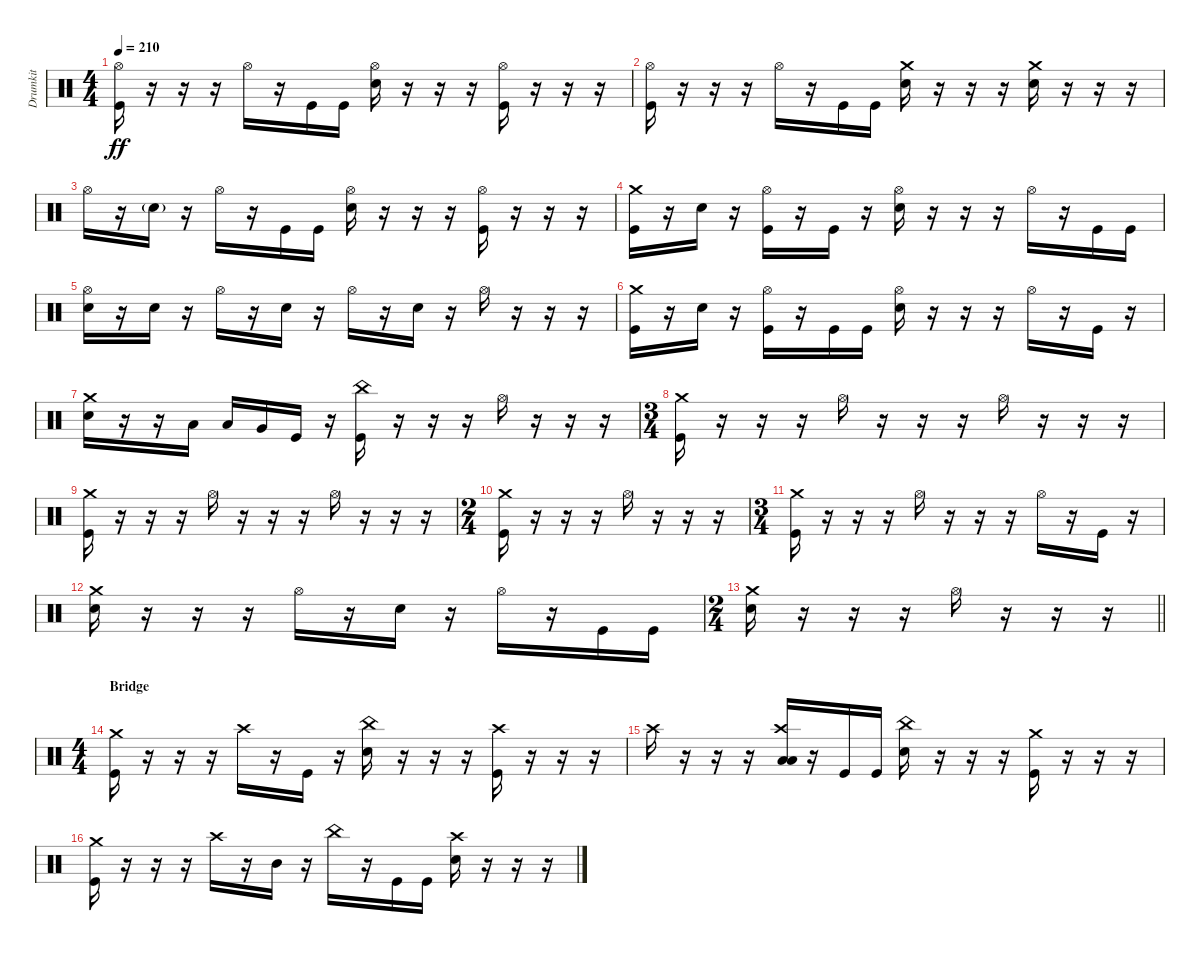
\track ("Drumkit" "Drumkit") {instrument percussion}
\staff {score}
\articulation defaults
\ts (4 4)
\tempo 210
\clef neutral
\ks c
("Hi-Hat (open)" "Kick (hit)").16{dy ff} r.16 r.16 r.16 "Hi-Hat (open)".16 r.16 "Kick (hit)".16 "Kick (hit)".16 ("Hi-Hat (open)" "Snare (hit) 2").16 r.16 r.16 r.16 ("Hi-Hat (open)" "Kick (hit)").16 r.16 r.16 r.16 |
("Hi-Hat (open)" "Kick (hit)").16 r.16 r.16 r.16 "Hi-Hat (open)".16 r.16 "Kick (hit)".16 "Kick (hit)".16 ("Crash medium (hit)" "Snare (hit) 2").16 r.16 r.16 r.16 ("Crash medium (hit)" "Snare (hit) 2").16 r.16 r.16 r.16 |
"Hi-Hat (open)".16 r.16 "Snare (hit) 2"{g}.16 r.16 "Hi-Hat (open)".16 r.16 "Kick (hit)".16 "Kick (hit)".16 ("Hi-Hat (open)" "Snare (hit) 2").16 r.16 r.16 r.16 ("Hi-Hat (open)" "Kick (hit)").16 r.16 r.16 r.16 |
("Crash medium (hit)" "Kick (hit)").16 r.16 "Snare (hit) 2".16 r.16 ("Hi-Hat (open)" "Kick (hit)").16 r.16 "Kick (hit)".16 r.16 ("Hi-Hat (open)" "Snare (hit) 2").16 r.16 r.16 r.16 "Hi-Hat (open)".16 r.16 "Kick (hit)".16 "Kick (hit)".16 |
("Hi-Hat (open)" "Snare (hit) 2").16 r.16 "Snare (hit) 2".16 r.16 "Hi-Hat (open)".16 r.16 "Snare (hit) 2".16 r.16 "Hi-Hat (open)".16 r.16 "Snare (hit) 2".16 r.16 "Hi-Hat (open)".16 r.16 r.16 r.16 |
("Crash medium (hit)" "Kick (hit)").16 r.16 "Snare (hit) 2".16 r.16 ("Hi-Hat (open)" "Kick (hit)").16 r.16 "Kick (hit)".16 "Kick (hit)".16 ("Hi-Hat (open)" "Snare (hit) 2").16 r.16 r.16 r.16 "Hi-Hat (open)".16 r.16 "Kick (hit)".16 r.16 |
("Crash medium (hit)" "Snare (hit) 2").16 r.16 r.16 "Low Tom (hit)".16 "Low Tom (hit)".16 "Very Low Tom (hit)".16 "Kick (hit)".16 r.16 ("China (hit)" "Kick (hit)").16 r.16 r.16 r.16 "Hi-Hat (open)".16 r.16 r.16 r.16 |
\ts (3 4)
("Crash medium (hit)" "Kick (hit)").16 r.16 r.16 r.16 "Hi-Hat (open)".16 r.16 r.16 r.16 "Hi-Hat (open)".16 r.16 r.16 r.16 |
("Crash medium (hit)" "Kick (hit)").16 r.16 r.16 r.16 "Hi-Hat (open)".16 r.16 r.16 r.16 "Hi-Hat (open)".16 r.16 r.16 r.16 |
\ts (2 4)
("Crash medium (hit)" "Kick (hit)").16 r.16 r.16 r.16 "Hi-Hat (open)".16 r.16 r.16 r.16 |
\ts (3 4)
("Crash medium (hit)" "Kick (hit)").16 r.16 r.16 r.16 "Hi-Hat (open)".16 r.16 r.16 r.16 "Hi-Hat (open)".16 r.16 "Kick (hit)".16 r.16 |
("Crash medium (hit)" "Snare (hit) 2").16 r.16 r.16 r.16 "Hi-Hat (open)".16 r.16 "Snare (hit) 2".16 r.16 "Hi-Hat (open)".16 r.16 "Kick (hit)".16 "Kick (hit)".16 |
\ts (2 4)
\barLineRight lightlight
("Crash medium (hit)" "Snare (hit) 2").16 r.16 r.16 r.16 "Hi-Hat (open)".16 r.16 r.16 r.16 |
\ts (4 4)
\section ("" "Bridge")
("Kick (hit)" "Crash medium (hit)").16 r.16 r.16 r.16 "Crash high (hit)".16 r.16 "Kick (hit)".16 r.16 ("Snare (hit) 2" "China (hit)").16 r.16 r.16 r.16 ("Kick (hit)" "Crash high (hit)").16 r.16 r.16 r.16 |
"Crash high (hit)".16 r.16 r.16 r.16 ("Crash high (hit)" "Low Floor Tom (hit)" "Low Tom (hit)").16 r.16 "Kick (hit)".16 "Kick (hit)".16 ("Snare (hit) 2" "China (hit)").16 r.16 r.16 r.16 ("Kick (hit)" "Crash medium (hit)").16 r.16 r.16 r.16 |
("Kick (hit)" "Crash medium (hit)").16 r.16 r.16 r.16 "Crash high (hit)".16 r.16 "Mid Tom (hit)".16 r.16 "China (hit)".16 r.16 "Kick (hit)".16 "Kick (hit)".16 ("Crash high (hit)" "Snare (hit) 2").16 r.16 r.16 r.16
